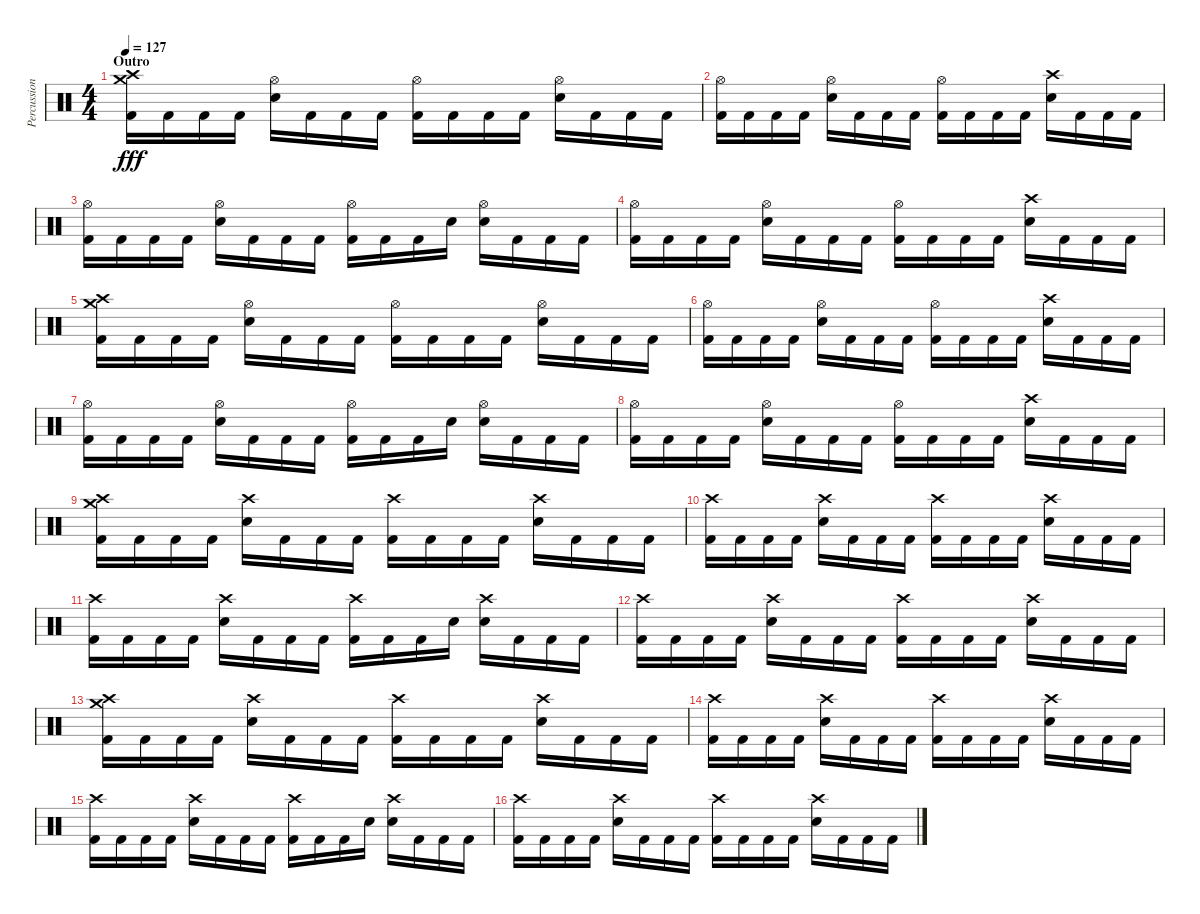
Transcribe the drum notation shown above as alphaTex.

\track ("Percussion" "Percussion") {instrument percussion}
\staff {score}
\articulation defaults
\ts (4 4)
\section ("" "Outro")
\tempo 127
\clef neutral
\ks c
("Crash high (hit)" "Crash medium (hit)" "Kick (hit) 2").16{dy fff} "Kick (hit) 2".16 "Kick (hit) 2".16 "Kick (hit) 2".16 ("Hi-Hat (open)" "Snare (hit) 2").16 "Kick (hit) 2".16 "Kick (hit) 2".16 "Kick (hit) 2".16 ("Hi-Hat (open)" "Kick (hit) 2").16 "Kick (hit) 2".16 "Kick (hit) 2".16 "Kick (hit) 2".16 ("Hi-Hat (open)" "Snare (hit) 2").16 "Kick (hit) 2".16 "Kick (hit) 2".16 "Kick (hit) 2".16 |
("Hi-Hat (open)" "Kick (hit) 2").16 "Kick (hit) 2".16 "Kick (hit) 2".16 "Kick (hit) 2".16 ("Hi-Hat (open)" "Snare (hit) 2").16 "Kick (hit) 2".16 "Kick (hit) 2".16 "Kick (hit) 2".16 ("Hi-Hat (open)" "Kick (hit) 2").16 "Kick (hit) 2".16 "Kick (hit) 2".16 "Kick (hit) 2".16 ("Crash high (hit)" "Snare (hit) 2").16 "Kick (hit) 2".16 "Kick (hit) 2".16 "Kick (hit) 2".16 |
("Hi-Hat (open)" "Kick (hit) 2").16 "Kick (hit) 2".16 "Kick (hit) 2".16 "Kick (hit) 2".16 ("Hi-Hat (open)" "Snare (hit) 2").16 "Kick (hit) 2".16 "Kick (hit) 2".16 "Kick (hit) 2".16 ("Hi-Hat (open)" "Kick (hit) 2").16 "Kick (hit) 2".16 "Kick (hit) 2".16 "Snare (hit) 2".16 ("Hi-Hat (open)" "Snare (hit) 2").16 "Kick (hit) 2".16 "Kick (hit) 2".16 "Kick (hit) 2".16 |
("Hi-Hat (open)" "Kick (hit) 2").16 "Kick (hit) 2".16 "Kick (hit) 2".16 "Kick (hit) 2".16 ("Hi-Hat (open)" "Snare (hit) 2").16 "Kick (hit) 2".16 "Kick (hit) 2".16 "Kick (hit) 2".16 ("Hi-Hat (open)" "Kick (hit) 2").16 "Kick (hit) 2".16 "Kick (hit) 2".16 "Kick (hit) 2".16 ("Crash high (hit)" "Snare (hit) 2").16 "Kick (hit) 2".16 "Kick (hit) 2".16 "Kick (hit) 2".16 |
("Crash high (hit)" "Crash medium (hit)" "Kick (hit) 2").16 "Kick (hit) 2".16 "Kick (hit) 2".16 "Kick (hit) 2".16 ("Hi-Hat (open)" "Snare (hit) 2").16 "Kick (hit) 2".16 "Kick (hit) 2".16 "Kick (hit) 2".16 ("Hi-Hat (open)" "Kick (hit) 2").16 "Kick (hit) 2".16 "Kick (hit) 2".16 "Kick (hit) 2".16 ("Hi-Hat (open)" "Snare (hit) 2").16 "Kick (hit) 2".16 "Kick (hit) 2".16 "Kick (hit) 2".16 |
("Hi-Hat (open)" "Kick (hit) 2").16 "Kick (hit) 2".16 "Kick (hit) 2".16 "Kick (hit) 2".16 ("Hi-Hat (open)" "Snare (hit) 2").16 "Kick (hit) 2".16 "Kick (hit) 2".16 "Kick (hit) 2".16 ("Hi-Hat (open)" "Kick (hit) 2").16 "Kick (hit) 2".16 "Kick (hit) 2".16 "Kick (hit) 2".16 ("Crash high (hit)" "Snare (hit) 2").16 "Kick (hit) 2".16 "Kick (hit) 2".16 "Kick (hit) 2".16 |
("Hi-Hat (open)" "Kick (hit) 2").16 "Kick (hit) 2".16 "Kick (hit) 2".16 "Kick (hit) 2".16 ("Hi-Hat (open)" "Snare (hit) 2").16 "Kick (hit) 2".16 "Kick (hit) 2".16 "Kick (hit) 2".16 ("Hi-Hat (open)" "Kick (hit) 2").16 "Kick (hit) 2".16 "Kick (hit) 2".16 "Snare (hit) 2".16 ("Hi-Hat (open)" "Snare (hit) 2").16 "Kick (hit) 2".16 "Kick (hit) 2".16 "Kick (hit) 2".16 |
("Hi-Hat (open)" "Kick (hit) 2").16 "Kick (hit) 2".16 "Kick (hit) 2".16 "Kick (hit) 2".16 ("Hi-Hat (open)" "Snare (hit) 2").16 "Kick (hit) 2".16 "Kick (hit) 2".16 "Kick (hit) 2".16 ("Hi-Hat (open)" "Kick (hit) 2").16 "Kick (hit) 2".16 "Kick (hit) 2".16 "Kick (hit) 2".16 ("Crash high (hit)" "Snare (hit) 2").16 "Kick (hit) 2".16 "Kick (hit) 2".16 "Kick (hit) 2".16 |
("Crash high (hit)" "Crash medium (hit)" "Kick (hit) 2").16 "Kick (hit) 2".16 "Kick (hit) 2".16 "Kick (hit) 2".16 ("Crash high (hit)" "Snare (hit) 2").16 "Kick (hit) 2".16 "Kick (hit) 2".16 "Kick (hit) 2".16 ("Crash high (hit)" "Kick (hit) 2").16 "Kick (hit) 2".16 "Kick (hit) 2".16 "Kick (hit) 2".16 ("Crash high (hit)" "Snare (hit) 2").16 "Kick (hit) 2".16 "Kick (hit) 2".16 "Kick (hit) 2".16 |
("Crash high (hit)" "Kick (hit) 2").16 "Kick (hit) 2".16 "Kick (hit) 2".16 "Kick (hit) 2".16 ("Crash high (hit)" "Snare (hit) 2").16 "Kick (hit) 2".16 "Kick (hit) 2".16 "Kick (hit) 2".16 ("Crash high (hit)" "Kick (hit) 2").16 "Kick (hit) 2".16 "Kick (hit) 2".16 "Kick (hit) 2".16 ("Crash high (hit)" "Snare (hit) 2").16 "Kick (hit) 2".16 "Kick (hit) 2".16 "Kick (hit) 2".16 |
("Crash high (hit)" "Kick (hit) 2").16 "Kick (hit) 2".16 "Kick (hit) 2".16 "Kick (hit) 2".16 ("Crash high (hit)" "Snare (hit) 2").16 "Kick (hit) 2".16 "Kick (hit) 2".16 "Kick (hit) 2".16 ("Crash high (hit)" "Kick (hit) 2").16 "Kick (hit) 2".16 "Kick (hit) 2".16 "Snare (hit) 2".16 ("Crash high (hit)" "Snare (hit) 2").16 "Kick (hit) 2".16 "Kick (hit) 2".16 "Kick (hit) 2".16 |
("Crash high (hit)" "Kick (hit) 2").16 "Kick (hit) 2".16 "Kick (hit) 2".16 "Kick (hit) 2".16 ("Crash high (hit)" "Snare (hit) 2").16 "Kick (hit) 2".16 "Kick (hit) 2".16 "Kick (hit) 2".16 ("Crash high (hit)" "Kick (hit) 2").16 "Kick (hit) 2".16 "Kick (hit) 2".16 "Kick (hit) 2".16 ("Crash high (hit)" "Snare (hit) 2").16 "Kick (hit) 2".16 "Kick (hit) 2".16 "Kick (hit) 2".16 |
("Crash high (hit)" "Crash medium (hit)" "Kick (hit) 2").16 "Kick (hit) 2".16 "Kick (hit) 2".16 "Kick (hit) 2".16 ("Crash high (hit)" "Snare (hit) 2").16 "Kick (hit) 2".16 "Kick (hit) 2".16 "Kick (hit) 2".16 ("Crash high (hit)" "Kick (hit) 2").16 "Kick (hit) 2".16 "Kick (hit) 2".16 "Kick (hit) 2".16 ("Crash high (hit)" "Snare (hit) 2").16 "Kick (hit) 2".16 "Kick (hit) 2".16 "Kick (hit) 2".16 |
("Crash high (hit)" "Kick (hit) 2").16 "Kick (hit) 2".16 "Kick (hit) 2".16 "Kick (hit) 2".16 ("Crash high (hit)" "Snare (hit) 2").16 "Kick (hit) 2".16 "Kick (hit) 2".16 "Kick (hit) 2".16 ("Crash high (hit)" "Kick (hit) 2").16 "Kick (hit) 2".16 "Kick (hit) 2".16 "Kick (hit) 2".16 ("Crash high (hit)" "Snare (hit) 2").16 "Kick (hit) 2".16 "Kick (hit) 2".16 "Kick (hit) 2".16 |
("Crash high (hit)" "Kick (hit) 2").16 "Kick (hit) 2".16 "Kick (hit) 2".16 "Kick (hit) 2".16 ("Crash high (hit)" "Snare (hit) 2").16 "Kick (hit) 2".16 "Kick (hit) 2".16 "Kick (hit) 2".16 ("Crash high (hit)" "Kick (hit) 2").16 "Kick (hit) 2".16 "Kick (hit) 2".16 "Snare (hit) 2".16 ("Crash high (hit)" "Snare (hit) 2").16 "Kick (hit) 2".16 "Kick (hit) 2".16 "Kick (hit) 2".16 |
("Crash high (hit)" "Kick (hit) 2").16 "Kick (hit) 2".16 "Kick (hit) 2".16 "Kick (hit) 2".16 ("Crash high (hit)" "Snare (hit) 2").16 "Kick (hit) 2".16 "Kick (hit) 2".16 "Kick (hit) 2".16 ("Crash high (hit)" "Kick (hit) 2").16 "Kick (hit) 2".16 "Kick (hit) 2".16 "Kick (hit) 2".16 ("Crash high (hit)" "Snare (hit) 2").16 "Kick (hit) 2".16 "Kick (hit) 2".16 "Kick (hit) 2".16
